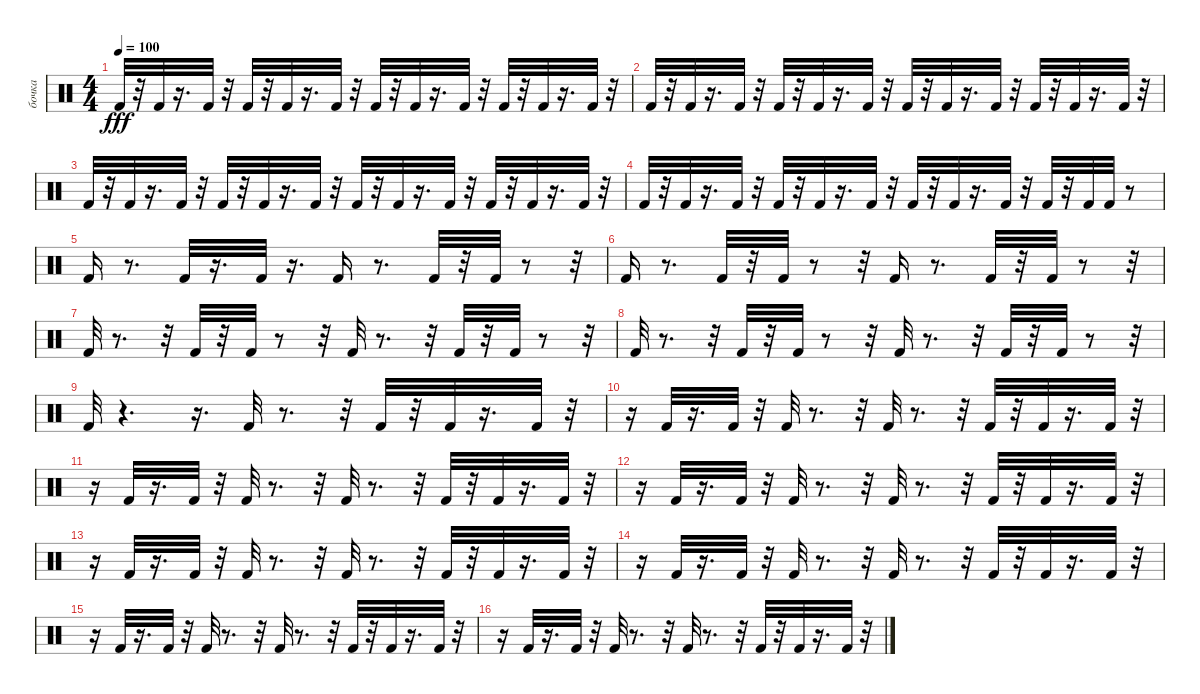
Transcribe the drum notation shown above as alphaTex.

\track ("бочка" "бочка") {instrument percussion}
\staff {score}
\articulation defaults
\ts (4 4)
\tempo 100
\clef neutral
\ks c "Kick (hit) 2".32{dy fff}
r.32 "Kick (hit) 2".32 r.16{d} "Kick (hit) 2".32 r.32 "Kick (hit) 2".32 r.32 "Kick (hit) 2".32 r.16{d} "Kick (hit) 2".32 r.32 "Kick (hit) 2".32 r.32 "Kick (hit) 2".32 r.16{d} "Kick (hit) 2".32 r.32 "Kick (hit) 2".32 r.32 "Kick (hit) 2".32 r.16{d} "Kick (hit) 2".32 r.32 |
"Kick (hit) 2".32 r.32 "Kick (hit) 2".32 r.16{d} "Kick (hit) 2".32 r.32 "Kick (hit) 2".32 r.32 "Kick (hit) 2".32 r.16{d} "Kick (hit) 2".32 r.32 "Kick (hit) 2".32 r.32 "Kick (hit) 2".32 r.16{d} "Kick (hit) 2".32 r.32 "Kick (hit) 2".32 r.32 "Kick (hit) 2".32 r.16{d} "Kick (hit) 2".32 r.32 |
"Kick (hit) 2".32 r.32 "Kick (hit) 2".32 r.16{d} "Kick (hit) 2".32 r.32 "Kick (hit) 2".32 r.32 "Kick (hit) 2".32 r.16{d} "Kick (hit) 2".32 r.32 "Kick (hit) 2".32 r.32 "Kick (hit) 2".32 r.16{d} "Kick (hit) 2".32 r.32 "Kick (hit) 2".32 r.32 "Kick (hit) 2".32 r.16{d} "Kick (hit) 2".32 r.32 |
"Kick (hit) 2".32 r.32 "Kick (hit) 2".32 r.16{d} "Kick (hit) 2".32 r.32 "Kick (hit) 2".32 r.32 "Kick (hit) 2".32 r.16{d} "Kick (hit) 2".32 r.32 "Kick (hit) 2".32 r.32 "Kick (hit) 2".32 r.16{d} "Kick (hit) 2".32 r.32 "Kick (hit) 2".32 r.32 "Kick (hit) 2".32 "Kick (hit) 2".32 r.8 |
"Kick (hit) 2".16 r.8{d} "Kick (hit) 2".32 r.16{d} "Kick (hit) 2".32 r.16{d} "Kick (hit) 2".16 r.8{d} "Kick (hit) 2".32 r.32 "Kick (hit) 2".32 r.8 r.32 |
"Kick (hit) 2".16 r.8{d} "Kick (hit) 2".32 r.32 "Kick (hit) 2".32 r.8 r.32 "Kick (hit) 2".16 r.8{d} "Kick (hit) 2".32 r.32 "Kick (hit) 2".32 r.8 r.32 |
"Kick (hit) 2".32 r.8{d} r.32 "Kick (hit) 2".32 r.32 "Kick (hit) 2".32 r.8 r.32 "Kick (hit) 2".32 r.8{d} r.32 "Kick (hit) 2".32 r.32 "Kick (hit) 2".32 r.8 r.32 |
"Kick (hit) 2".32 r.8{d} r.32 "Kick (hit) 2".32 r.32 "Kick (hit) 2".32 r.8 r.32 "Kick (hit) 2".32 r.8{d} r.32 "Kick (hit) 2".32 r.32 "Kick (hit) 2".32 r.8 r.32 |
"Kick (hit) 2".32 r.4{d} r.16{d} "Kick (hit) 2".32 r.8{d} r.32 "Kick (hit) 2".32 r.32 "Kick (hit) 2".32 r.16{d} "Kick (hit) 2".32 r.32 |
r.16 "Kick (hit) 2".32 r.16{d} "Kick (hit) 2".32 r.32 "Kick (hit) 2".32 r.8{d} r.32 "Kick (hit) 2".32 r.8{d} r.32 "Kick (hit) 2".32 r.32 "Kick (hit) 2".32 r.16{d} "Kick (hit) 2".32 r.32 |
r.16 "Kick (hit) 2".32 r.16{d} "Kick (hit) 2".32 r.32 "Kick (hit) 2".32 r.8{d} r.32 "Kick (hit) 2".32 r.8{d} r.32 "Kick (hit) 2".32 r.32 "Kick (hit) 2".32 r.16{d} "Kick (hit) 2".32 r.32 |
r.16 "Kick (hit) 2".32 r.16{d} "Kick (hit) 2".32 r.32 "Kick (hit) 2".32 r.8{d} r.32 "Kick (hit) 2".32 r.8{d} r.32 "Kick (hit) 2".32 r.32 "Kick (hit) 2".32 r.16{d} "Kick (hit) 2".32 r.32 |
r.16 "Kick (hit) 2".32 r.16{d} "Kick (hit) 2".32 r.32 "Kick (hit) 2".32 r.8{d} r.32 "Kick (hit) 2".32 r.8{d} r.32 "Kick (hit) 2".32 r.32 "Kick (hit) 2".32 r.16{d} "Kick (hit) 2".32 r.32 |
r.16 "Kick (hit) 2".32 r.16{d} "Kick (hit) 2".32 r.32 "Kick (hit) 2".32 r.8{d} r.32 "Kick (hit) 2".32 r.8{d} r.32 "Kick (hit) 2".32 r.32 "Kick (hit) 2".32 r.16{d} "Kick (hit) 2".32 r.32 |
r.16 "Kick (hit) 2".32 r.16{d} "Kick (hit) 2".32 r.32 "Kick (hit) 2".32 r.8{d} r.32 "Kick (hit) 2".32 r.8{d} r.32 "Kick (hit) 2".32 r.32 "Kick (hit) 2".32 r.16{d} "Kick (hit) 2".32 r.32 |
r.16 "Kick (hit) 2".32 r.16{d} "Kick (hit) 2".32 r.32 "Kick (hit) 2".32 r.8{d} r.32 "Kick (hit) 2".32 r.8{d} r.32 "Kick (hit) 2".32 r.32 "Kick (hit) 2".32 r.16{d} "Kick (hit) 2".32 r.32
